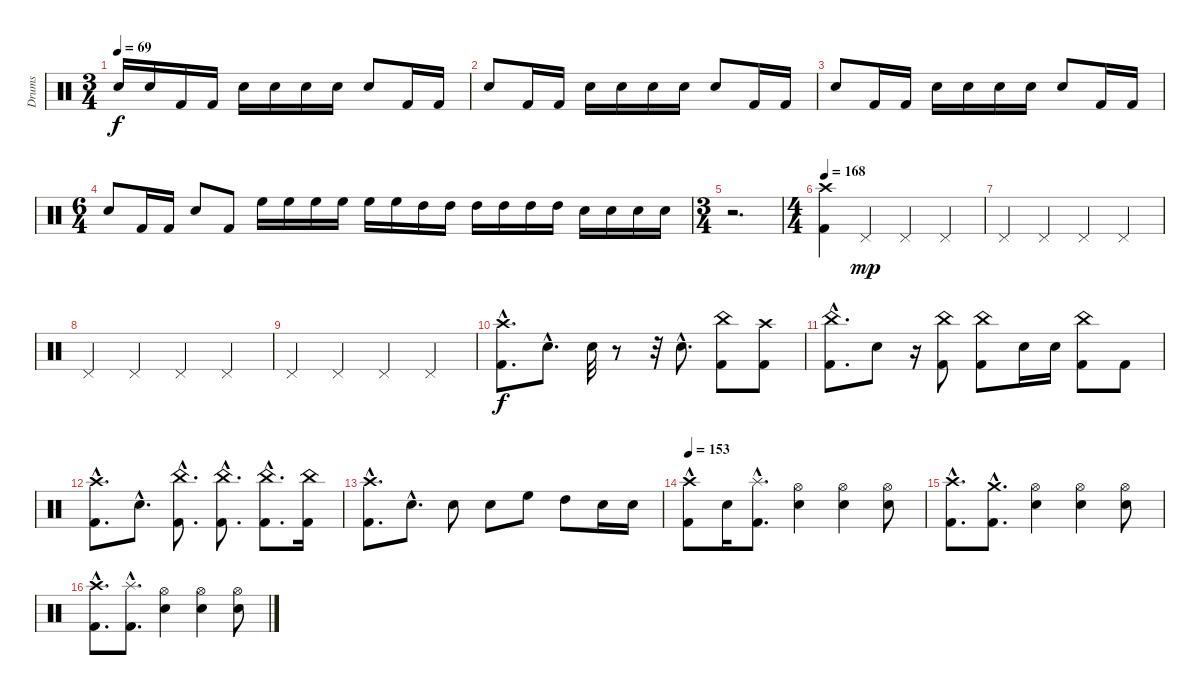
\track ("Drums" "Drums") {instrument percussion}
\staff {score}
\articulation defaults
\ts (3 4)
\tempo 69
\clef neutral
\ks c "Electric Snare (hit)".16{dy f} "Electric Snare (hit)".16 "Kick (hit) 2".16 "Kick (hit) 2".16 "Electric Snare (hit)".16 "Electric Snare (hit)".16 "Electric Snare (hit)".16 "Electric Snare (hit)".16 "Electric Snare (hit)".8 "Kick (hit) 2".16 "Kick (hit) 2".16
|
"Electric Snare (hit)".8 "Kick (hit) 2".16 "Kick (hit) 2".16 "Electric Snare (hit)".16 "Electric Snare (hit)".16 "Electric Snare (hit)".16 "Electric Snare (hit)".16 "Electric Snare (hit)".8 "Kick (hit) 2".16 "Kick (hit) 2".16 |
"Electric Snare (hit)".8 "Kick (hit) 2".16 "Kick (hit) 2".16 "Electric Snare (hit)".16 "Electric Snare (hit)".16 "Electric Snare (hit)".16 "Electric Snare (hit)".16 "Electric Snare (hit)".8 "Kick (hit) 2".16 "Kick (hit) 2".16 |
\ts (6 4)
"Electric Snare (hit)".8 "Kick (hit) 2".16 "Kick (hit) 2".16 "Electric Snare (hit)".8 "Kick (hit) 2".8 "High Floor Tom (hit)".16{balance 16} "High Floor Tom (hit)".16 "High Floor Tom (hit)".16 "High Floor Tom (hit)".16 "High Floor Tom (hit)".16 "High Floor Tom (hit)".16 "High Tom (hit)".16{balance 0} "High Tom (hit)".16 "High Tom (hit)".16 "High Tom (hit)".16 "High Tom (hit)".16 "High Tom (hit)".16 "Electric Snare (hit)".16{balance 8} "Electric Snare (hit)".16 "Electric Snare (hit)".16 "Electric Snare (hit)".16 |
\ts (3 4)
r.2{d} |
\ts (4 4)
\tempo 168
("Crash high (hit)" "Kick (hit) 2").4 "Pedal Hi-Hat (hit)".4{dy mp} "Pedal Hi-Hat (hit)".4 "Pedal Hi-Hat (hit)".4 |
"Pedal Hi-Hat (hit)".4 "Pedal Hi-Hat (hit)".4 "Pedal Hi-Hat (hit)".4 "Pedal Hi-Hat (hit)".4 |
"Pedal Hi-Hat (hit)".4 "Pedal Hi-Hat (hit)".4 "Pedal Hi-Hat (hit)".4 "Pedal Hi-Hat (hit)".4 |
"Pedal Hi-Hat (hit)".4 "Pedal Hi-Hat (hit)".4 "Pedal Hi-Hat (hit)".4 "Pedal Hi-Hat (hit)".4 |
("Kick (hit) 2"{hac} "Crash high (hit)"{hac}).8{d dy f} "Electric Snare (hit)"{hac}.8{d} "Electric Snare (hit)".32 r.8 r.32 "Electric Snare (hit)"{hac}.8{d} ("Kick (hit) 2" "China (hit)").8 ("Kick (hit) 2" "Crash high (hit)").8 |
("China (hit)"{hac} "Kick (hit) 2"{hac}).8{d} "Electric Snare (hit)".8 r.16 ("Kick (hit) 2" "China (hit)").8 ("Kick (hit) 2" "China (hit)").8 "Electric Snare (hit)".16 "Electric Snare (hit)".16 ("Kick (hit) 2" "China (hit)").8 "Kick (hit) 2".8 |
("Crash high (hit)"{hac} "Kick (hit) 2"{hac}).8{d} "Electric Snare (hit)"{hac}.8{d} ("Kick (hit) 2"{hac} "China (hit)"{hac}).8{d} ("Kick (hit) 2"{hac} "China (hit)"{hac}).8{d} ("China (hit)"{hac} "Kick (hit) 2"{hac}).8{d} ("Kick (hit) 2" "China (hit)").16 |
("Kick (hit) 2"{hac} "Crash high (hit)"{hac}).8{d} "Electric Snare (hit)"{hac}.8{d} "Electric Snare (hit)".8 "Electric Snare (hit)".8 "High Floor Tom (hit)".8 "High Tom (hit)".8 "Electric Snare (hit)".16 "Electric Snare (hit)".16 |
\tempo 153
("Crash high (hit)"{hac} "Kick (hit) 2").8 "Electric Snare (hit)".16 ("Splash (hit)"{hac} "Kick (hit) 2"{hac}).8{d} ("Hi-Hat (open)" "Electric Snare (hit)").4 ("Hi-Hat (open)" "Electric Snare (hit)").4 ("Hi-Hat (open)" "Electric Snare (hit)").8 |
("Kick (hit) 2"{hac} "Crash high (hit)"{hac}).8{d} ("Kick (hit) 2"{hac} "Crash medium (hit)"{hac}).8{d} ("Hi-Hat (open)" "Electric Snare (hit)").4 ("Hi-Hat (open)" "Electric Snare (hit)").4 ("Hi-Hat (open)" "Electric Snare (hit)").8 |
("Crash high (hit)"{hac} "Kick (hit) 2"{hac}).8{d} ("Splash (hit)"{hac} "Kick (hit) 2"{hac}).8{d} ("Hi-Hat (open)" "Electric Snare (hit)").4 ("Hi-Hat (open)" "Electric Snare (hit)").4 ("Hi-Hat (open)" "Electric Snare (hit)").8
